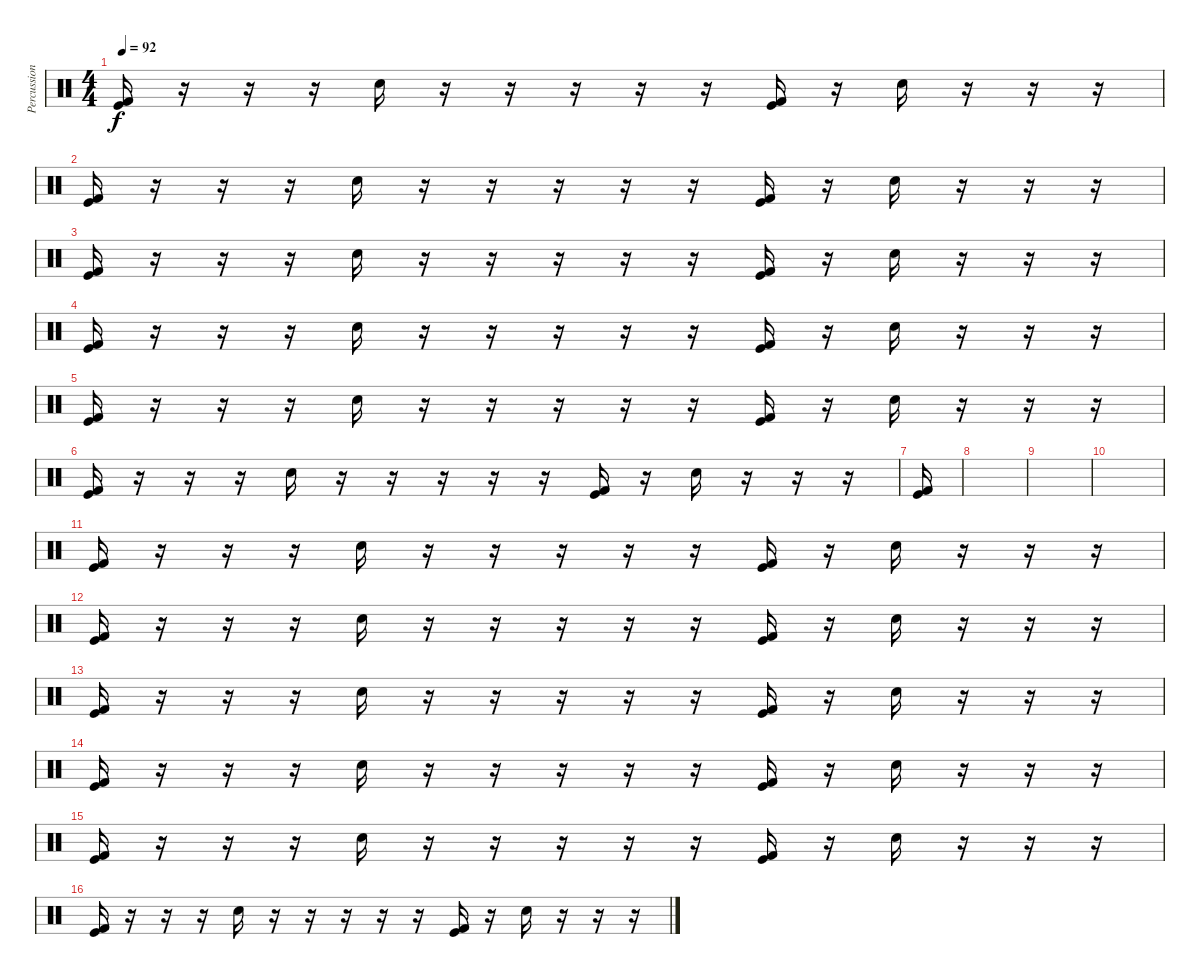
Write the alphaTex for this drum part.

\track ("Percussion" "Percussion") {instrument percussion}
\staff {score}
\articulation defaults
\ts (4 4)
\tempo 92
\clef neutral
\ks c
("Kick (hit)" "Kick (hit) 2").16{dy f} r.16 r.16 r.16 "Snare (hit) 2".16 r.16 r.16 r.16 r.16 r.16 ("Kick (hit)" "Kick (hit) 2").16 r.16 "Snare (hit) 2".16 r.16 r.16 r.16 |
("Kick (hit)" "Kick (hit) 2").16 r.16 r.16 r.16 "Snare (hit) 2".16 r.16 r.16 r.16 r.16 r.16 ("Kick (hit)" "Kick (hit) 2").16 r.16 "Snare (hit) 2".16 r.16 r.16 r.16 |
("Kick (hit)" "Kick (hit) 2").16 r.16 r.16 r.16 "Snare (hit) 2".16 r.16 r.16 r.16 r.16 r.16 ("Kick (hit)" "Kick (hit) 2").16 r.16 "Snare (hit) 2".16 r.16 r.16 r.16 |
("Kick (hit)" "Kick (hit) 2").16 r.16 r.16 r.16 "Snare (hit) 2".16 r.16 r.16 r.16 r.16 r.16 ("Kick (hit)" "Kick (hit) 2").16 r.16 "Snare (hit) 2".16 r.16 r.16 r.16 |
("Kick (hit)" "Kick (hit) 2").16 r.16 r.16 r.16 "Snare (hit) 2".16 r.16 r.16 r.16 r.16 r.16 ("Kick (hit)" "Kick (hit) 2").16 r.16 "Snare (hit) 2".16 r.16 r.16 r.16 |
("Kick (hit)" "Kick (hit) 2").16 r.16 r.16 r.16 "Snare (hit) 2".16 r.16 r.16 r.16 r.16 r.16 ("Kick (hit)" "Kick (hit) 2").16 r.16 "Snare (hit) 2".16 r.16 r.16 r.16 |
("Kick (hit)" "Kick (hit) 2").16 |
|
|
|
("Kick (hit)" "Kick (hit) 2").16 r.16 r.16 r.16 "Snare (hit) 2".16 r.16 r.16 r.16 r.16 r.16 ("Kick (hit)" "Kick (hit) 2").16 r.16 "Snare (hit) 2".16 r.16 r.16 r.16 |
("Kick (hit)" "Kick (hit) 2").16 r.16 r.16 r.16 "Snare (hit) 2".16 r.16 r.16 r.16 r.16 r.16 ("Kick (hit)" "Kick (hit) 2").16 r.16 "Snare (hit) 2".16 r.16 r.16 r.16 |
("Kick (hit)" "Kick (hit) 2").16 r.16 r.16 r.16 "Snare (hit) 2".16 r.16 r.16 r.16 r.16 r.16 ("Kick (hit)" "Kick (hit) 2").16 r.16 "Snare (hit) 2".16 r.16 r.16 r.16 |
("Kick (hit)" "Kick (hit) 2").16 r.16 r.16 r.16 "Snare (hit) 2".16 r.16 r.16 r.16 r.16 r.16 ("Kick (hit)" "Kick (hit) 2").16 r.16 "Snare (hit) 2".16 r.16 r.16 r.16 |
("Kick (hit)" "Kick (hit) 2").16 r.16 r.16 r.16 "Snare (hit) 2".16 r.16 r.16 r.16 r.16 r.16 ("Kick (hit)" "Kick (hit) 2").16 r.16 "Snare (hit) 2".16 r.16 r.16 r.16 |
("Kick (hit)" "Kick (hit) 2").16 r.16 r.16 r.16 "Snare (hit) 2".16 r.16 r.16 r.16 r.16 r.16 ("Kick (hit)" "Kick (hit) 2").16 r.16 "Snare (hit) 2".16 r.16 r.16 r.16
